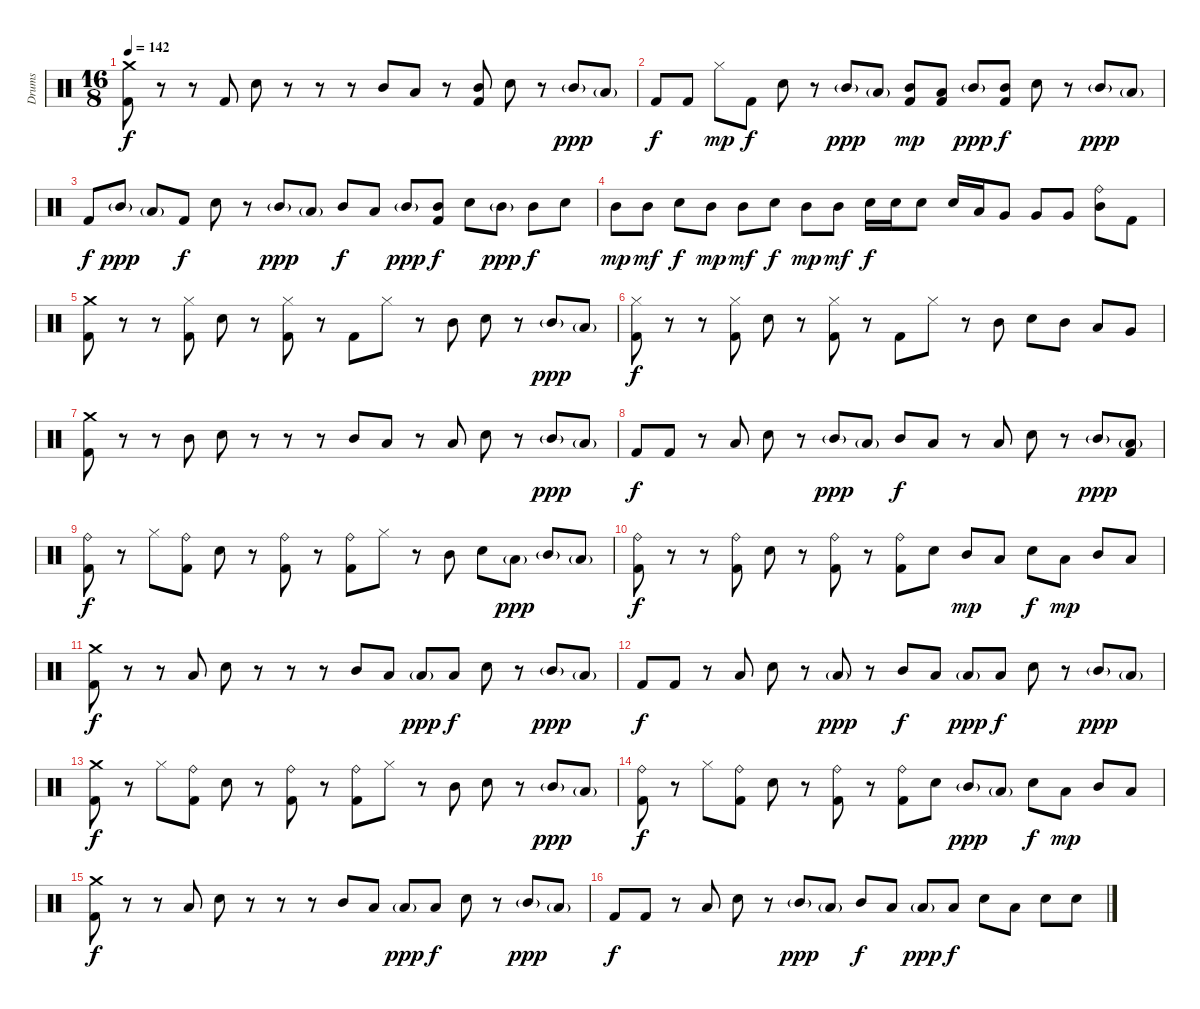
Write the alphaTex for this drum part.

\track ("Drums" "Drums") {instrument percussion}
\staff {score}
\articulation defaults
\ts (16 8)
\tempo 142
\clef neutral
\ks c
("Crash medium (hit)" "Kick (hit) 2").8{dy f} r.8 r.8 "Kick (hit) 2".8 "Electric Snare (hit)".8 r.8 r.8 r.8 "Mid Tom (hit)".8 "Low Tom (hit)".8 r.8 ("Mid Tom (hit)" "Kick (hit) 2").8 "Electric Snare (hit)".8 r.8 "Mid Tom (hit)"{g}.8{dy ppp} "Low Tom (hit)"{g}.8 |
"Kick (hit) 2".8{dy f} "Kick (hit) 2".8 "Hi-Hat (closed)".8{dy mp} "Kick (hit) 2".8{dy f} "Electric Snare (hit)".8 r.8 "Mid Tom (hit)"{g}.8{dy ppp} "Low Tom (hit)"{g}.8 ("Mid Tom (hit)" "Kick (hit) 2").8{dy mp} ("Low Tom (hit)" "Kick (hit) 2").8 "Mid Tom (hit)"{g}.8{dy ppp} ("Mid Tom (hit)" "Kick (hit) 2").8{dy f} "Electric Snare (hit)".8 r.8 "Mid Tom (hit)"{g}.8{dy ppp} "Low Tom (hit)"{g}.8 |
"Kick (hit) 2".8{dy f} "Mid Tom (hit)"{g}.8{dy ppp} "Low Tom (hit)"{g}.8 "Kick (hit) 2".8{dy f} "Electric Snare (hit)".8 r.8 "Mid Tom (hit)"{g}.8{dy ppp} "Low Tom (hit)"{g}.8 "Mid Tom (hit)".8{dy f} "Low Tom (hit)".8 "Mid Tom (hit)"{g}.8{dy ppp} ("Mid Tom (hit)" "Kick (hit) 2").8{dy f} "Electric Snare (hit)".8 "Mid Tom (hit)"{g}.8{dy ppp} "Mid Tom (hit)".8{dy f} "Electric Snare (hit)".8 |
"Mid Tom (hit)".8{dy mp} "Mid Tom (hit)".8{dy mf} "Electric Snare (hit)".8{dy f} "Mid Tom (hit)".8{dy mp} "Mid Tom (hit)".8{dy mf} "Electric Snare (hit)".8{dy f} "Mid Tom (hit)".8{dy mp} "Mid Tom (hit)".8{dy mf} "Electric Snare (hit)".16{dy f} "Electric Snare (hit)".16 "Electric Snare (hit)".8 "Electric Snare (hit)".16 "Low Tom (hit)".16 "Very Low Tom (hit)".8 "Very Low Tom (hit)".8 "Very Low Tom (hit)".8 ("Ride (bell)" "Mid Tom (hit)").8 "Kick (hit) 2".8 |
("Crash medium (hit)" "Kick (hit) 2").8 r.8 r.8 ("Hi-Hat (closed)" "Kick (hit) 2").8 "Electric Snare (hit)".8 r.8 ("Hi-Hat (closed)" "Kick (hit) 2").8 r.8 "Kick (hit) 2".8 "Hi-Hat (closed)".8 r.8 "Mid Tom (hit)".8 "Electric Snare (hit)".8 r.8 "Mid Tom (hit)"{g}.8{dy ppp} "Low Tom (hit)"{g}.8 |
("Hi-Hat (closed)" "Kick (hit) 2").8{dy f} r.8 r.8 ("Hi-Hat (closed)" "Kick (hit) 2").8 "Electric Snare (hit)".8 r.8 ("Hi-Hat (closed)" "Kick (hit) 2").8 r.8 "Kick (hit) 2".8 "Hi-Hat (closed)".8 r.8 "Mid Tom (hit)".8 "Electric Snare (hit)".8 "Mid Tom (hit)".8 "Low Tom (hit)".8 "Very Low Tom (hit)".8 |
("Crash medium (hit)" "Kick (hit) 2").8 r.8 r.8 "Mid Tom (hit)".8 "Electric Snare (hit)".8 r.8 r.8 r.8 "Mid Tom (hit)".8 "Low Tom (hit)".8 r.8 "Low Tom (hit)".8 "Electric Snare (hit)".8 r.8 "Mid Tom (hit)"{g}.8{dy ppp} "Low Tom (hit)"{g}.8 |
"Kick (hit) 2".8{dy f} "Kick (hit) 2".8 r.8 "Low Tom (hit)".8 "Electric Snare (hit)".8 r.8 "Mid Tom (hit)"{g}.8{dy ppp} "Low Tom (hit)"{g}.8 "Mid Tom (hit)".8{dy f} "Low Tom (hit)".8 r.8 "Low Tom (hit)".8 "Electric Snare (hit)".8 r.8 "Mid Tom (hit)"{g}.8{dy ppp} ("Low Tom (hit)"{g} "Kick (hit) 2").8 |
("Ride (bell)" "Kick (hit) 2").8{dy f} r.8 "Hi-Hat (closed)".8 ("Ride (bell)" "Kick (hit) 2").8 "Electric Snare (hit)".8 r.8 ("Ride (bell)" "Kick (hit) 2").8 r.8 ("Ride (bell)" "Kick (hit) 2").8 "Hi-Hat (closed)".8 r.8 "Mid Tom (hit)".8 "Electric Snare (hit)".8 "Low Tom (hit)"{g}.8{dy ppp} "Mid Tom (hit)"{g}.8 "Low Tom (hit)"{g}.8 |
("Ride (bell)" "Kick (hit) 2").8{dy f} r.8 r.8 ("Ride (bell)" "Kick (hit) 2").8 "Electric Snare (hit)".8 r.8 ("Ride (bell)" "Kick (hit) 2").8 r.8 ("Ride (bell)" "Kick (hit) 2").8 "Electric Snare (hit)".8 "Mid Tom (hit)".8{dy mp} "Low Tom (hit)".8 "Electric Snare (hit)".8{dy f} "Low Tom (hit)".8{dy mp} "Mid Tom (hit)".8 "Low Tom (hit)".8 |
("Crash medium (hit)" "Kick (hit) 2").8{dy f} r.8 r.8 "Low Tom (hit)".8 "Electric Snare (hit)".8 r.8 r.8 r.8 "Mid Tom (hit)".8 "Low Tom (hit)".8 "Low Tom (hit)"{g}.8{dy ppp} "Low Tom (hit)".8{dy f} "Electric Snare (hit)".8 r.8 "Mid Tom (hit)"{g}.8{dy ppp} "Low Tom (hit)"{g}.8 |
"Kick (hit) 2".8{dy f} "Kick (hit) 2".8 r.8 "Low Tom (hit)".8 "Electric Snare (hit)".8 r.8 "Low Tom (hit)"{g}.8{dy ppp} r.8 "Mid Tom (hit)".8{dy f} "Low Tom (hit)".8 "Low Tom (hit)"{g}.8{dy ppp} "Low Tom (hit)".8{dy f} "Electric Snare (hit)".8 r.8 "Mid Tom (hit)"{g}.8{dy ppp} "Low Tom (hit)"{g}.8 |
("Crash medium (hit)" "Kick (hit) 2").8{dy f} r.8 "Hi-Hat (closed)".8 ("Ride (bell)" "Kick (hit) 2").8 "Electric Snare (hit)".8 r.8 ("Ride (bell)" "Kick (hit) 2").8 r.8 ("Ride (bell)" "Kick (hit) 2").8 "Hi-Hat (closed)".8 r.8 "Mid Tom (hit)".8 "Electric Snare (hit)".8 r.8 "Mid Tom (hit)"{g}.8{dy ppp} "Low Tom (hit)"{g}.8 |
("Ride (bell)" "Kick (hit) 2").8{dy f} r.8 "Hi-Hat (closed)".8 ("Ride (bell)" "Kick (hit) 2").8 "Electric Snare (hit)".8 r.8 ("Ride (bell)" "Kick (hit) 2").8 r.8 ("Ride (bell)" "Kick (hit) 2").8 "Electric Snare (hit)".8 "Mid Tom (hit)"{g}.8{dy ppp} "Low Tom (hit)"{g}.8 "Electric Snare (hit)".8{dy f} "Low Tom (hit)".8{dy mp} "Mid Tom (hit)".8 "Low Tom (hit)".8 |
("Crash medium (hit)" "Kick (hit) 2").8{dy f} r.8 r.8 "Low Tom (hit)".8 "Electric Snare (hit)".8 r.8 r.8 r.8 "Mid Tom (hit)".8 "Low Tom (hit)".8 "Low Tom (hit)"{g}.8{dy ppp} "Low Tom (hit)".8{dy f} "Electric Snare (hit)".8 r.8 "Mid Tom (hit)"{g}.8{dy ppp} "Low Tom (hit)"{g}.8 |
"Kick (hit) 2".8{dy f} "Kick (hit) 2".8 r.8 "Low Tom (hit)".8 "Electric Snare (hit)".8 r.8 "Mid Tom (hit)"{g}.8{dy ppp} "Low Tom (hit)"{g}.8 "Mid Tom (hit)".8{dy f} "Low Tom (hit)".8 "Low Tom (hit)"{g}.8{dy ppp} "Low Tom (hit)".8{dy f} "Electric Snare (hit)".8 "Low Tom (hit)".8 "Electric Snare (hit)".8 "Electric Snare (hit)".8
